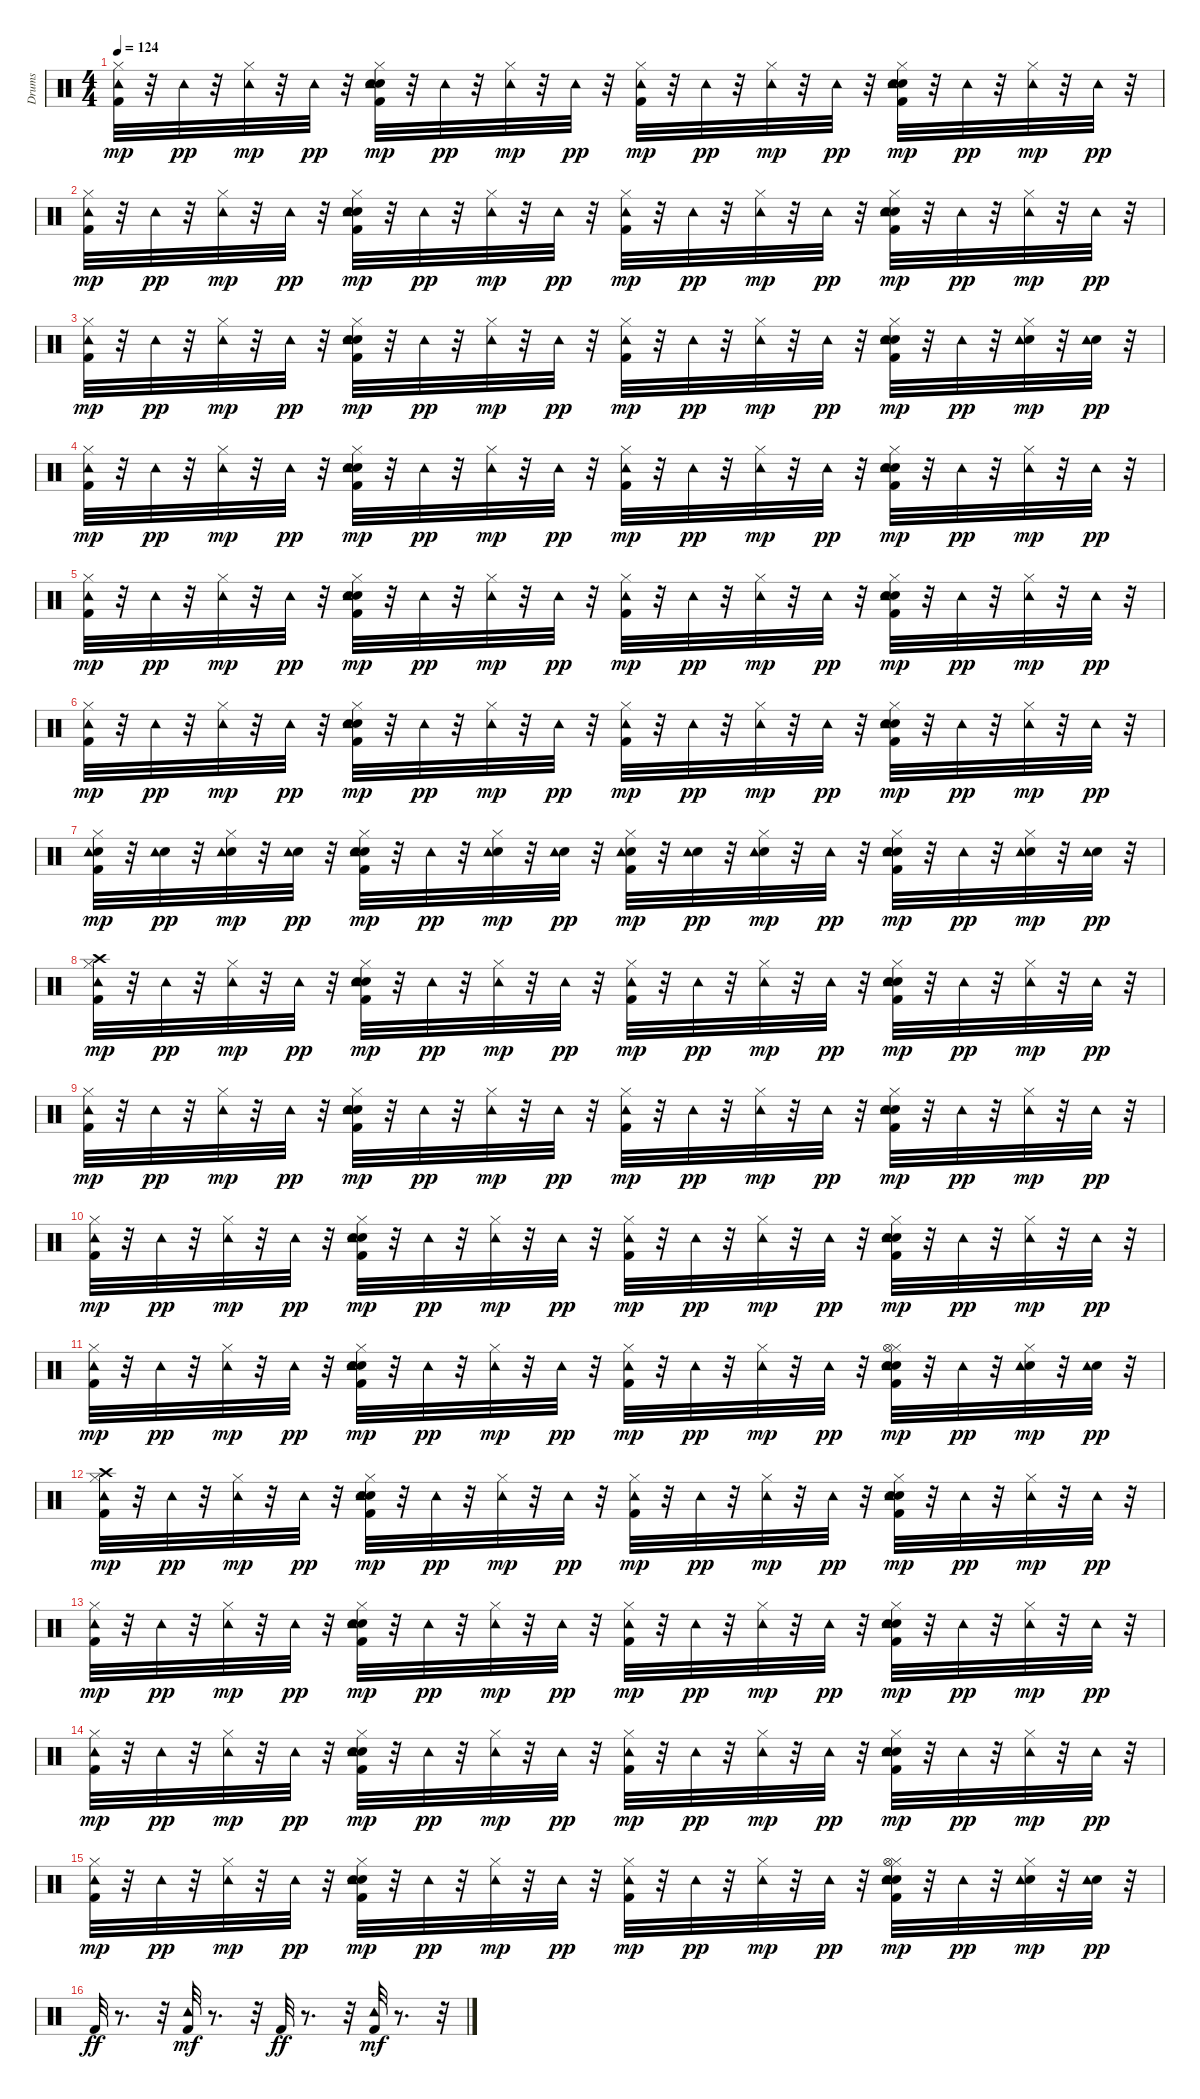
\track ("Drums" "Drums") {instrument percussion}
\staff {score}
\articulation defaults
\ts (4 4)
\tempo 124
\clef neutral
\ks c
("Kick (hit) 2" "Hi-Hat (closed)" "Tambourine (hit)").32{dy mp} r.32 "Tambourine (hit)".32{dy pp} r.32 ("Hi-Hat (closed)" "Tambourine (hit)").32{dy mp} r.32 "Tambourine (hit)".32{dy pp} r.32 ("Hand Clap (hit)" "Kick (hit) 2" "Electric Snare (hit)" "Hi-Hat (closed)" "Tambourine (hit)").32{dy mp} r.32 "Tambourine (hit)".32{dy pp} r.32 ("Hi-Hat (closed)" "Tambourine (hit)").32{dy mp} r.32 "Tambourine (hit)".32{dy pp} r.32 ("Kick (hit) 2" "Hi-Hat (closed)" "Tambourine (hit)").32{dy mp} r.32 "Tambourine (hit)".32{dy pp} r.32 ("Hi-Hat (closed)" "Tambourine (hit)").32{dy mp} r.32 "Tambourine (hit)".32{dy pp} r.32 ("Hand Clap (hit)" "Kick (hit) 2" "Electric Snare (hit)" "Hi-Hat (closed)" "Tambourine (hit)").32{dy mp} r.32 "Tambourine (hit)".32{dy pp} r.32 ("Hi-Hat (closed)" "Tambourine (hit)").32{dy mp} r.32 "Tambourine (hit)".32{dy pp} r.32 |
("Kick (hit) 2" "Hi-Hat (closed)" "Tambourine (hit)").32{dy mp} r.32 "Tambourine (hit)".32{dy pp} r.32 ("Hi-Hat (closed)" "Tambourine (hit)").32{dy mp} r.32 "Tambourine (hit)".32{dy pp} r.32 ("Hand Clap (hit)" "Kick (hit) 2" "Electric Snare (hit)" "Hi-Hat (closed)" "Tambourine (hit)").32{dy mp} r.32 "Tambourine (hit)".32{dy pp} r.32 ("Hi-Hat (closed)" "Tambourine (hit)").32{dy mp} r.32 "Tambourine (hit)".32{dy pp} r.32 ("Kick (hit) 2" "Hi-Hat (closed)" "Tambourine (hit)").32{dy mp} r.32 "Tambourine (hit)".32{dy pp} r.32 ("Hi-Hat (closed)" "Tambourine (hit)").32{dy mp} r.32 "Tambourine (hit)".32{dy pp} r.32 ("Hand Clap (hit)" "Kick (hit) 2" "Electric Snare (hit)" "Hi-Hat (closed)" "Tambourine (hit)").32{dy mp} r.32 "Tambourine (hit)".32{dy pp} r.32 ("Hi-Hat (closed)" "Tambourine (hit)").32{dy mp} r.32 "Tambourine (hit)".32{dy pp} r.32 |
("Kick (hit) 2" "Hi-Hat (closed)" "Tambourine (hit)").32{dy mp} r.32 "Tambourine (hit)".32{dy pp} r.32 ("Hi-Hat (closed)" "Tambourine (hit)").32{dy mp} r.32 "Tambourine (hit)".32{dy pp} r.32 ("Hand Clap (hit)" "Kick (hit) 2" "Electric Snare (hit)" "Hi-Hat (closed)" "Tambourine (hit)").32{dy mp} r.32 "Tambourine (hit)".32{dy pp} r.32 ("Hi-Hat (closed)" "Tambourine (hit)").32{dy mp} r.32 "Tambourine (hit)".32{dy pp} r.32 ("Kick (hit) 2" "Hi-Hat (closed)" "Tambourine (hit)").32{dy mp} r.32 "Tambourine (hit)".32{dy pp} r.32 ("Hi-Hat (closed)" "Tambourine (hit)").32{dy mp} r.32 "Tambourine (hit)".32{dy pp} r.32 ("Hand Clap (hit)" "Kick (hit) 2" "Electric Snare (hit)" "Hi-Hat (closed)" "Tambourine (hit)").32{dy mp} r.32 "Tambourine (hit)".32{dy pp} r.32 ("Electric Snare (hit)" "Hi-Hat (closed)" "Tambourine (hit)").32{dy mp} r.32 ("Electric Snare (hit)" "Tambourine (hit)").32{dy pp} r.32 |
("Kick (hit) 2" "Hi-Hat (closed)" "Tambourine (hit)").32{dy mp} r.32 "Tambourine (hit)".32{dy pp} r.32 ("Hi-Hat (closed)" "Tambourine (hit)").32{dy mp} r.32 "Tambourine (hit)".32{dy pp} r.32 ("Hand Clap (hit)" "Kick (hit) 2" "Electric Snare (hit)" "Hi-Hat (closed)" "Tambourine (hit)").32{dy mp} r.32 "Tambourine (hit)".32{dy pp} r.32 ("Hi-Hat (closed)" "Tambourine (hit)").32{dy mp} r.32 "Tambourine (hit)".32{dy pp} r.32 ("Kick (hit) 2" "Hi-Hat (closed)" "Tambourine (hit)").32{dy mp} r.32 "Tambourine (hit)".32{dy pp} r.32 ("Hi-Hat (closed)" "Tambourine (hit)").32{dy mp} r.32 "Tambourine (hit)".32{dy pp} r.32 ("Hand Clap (hit)" "Kick (hit) 2" "Electric Snare (hit)" "Hi-Hat (closed)" "Tambourine (hit)").32{dy mp} r.32 "Tambourine (hit)".32{dy pp} r.32 ("Hi-Hat (closed)" "Tambourine (hit)").32{dy mp} r.32 "Tambourine (hit)".32{dy pp} r.32 |
("Kick (hit) 2" "Hi-Hat (closed)" "Tambourine (hit)").32{dy mp} r.32 "Tambourine (hit)".32{dy pp} r.32 ("Hi-Hat (closed)" "Tambourine (hit)").32{dy mp} r.32 "Tambourine (hit)".32{dy pp} r.32 ("Hand Clap (hit)" "Kick (hit) 2" "Electric Snare (hit)" "Hi-Hat (closed)" "Tambourine (hit)").32{dy mp} r.32 "Tambourine (hit)".32{dy pp} r.32 ("Hi-Hat (closed)" "Tambourine (hit)").32{dy mp} r.32 "Tambourine (hit)".32{dy pp} r.32 ("Kick (hit) 2" "Hi-Hat (closed)" "Tambourine (hit)").32{dy mp} r.32 "Tambourine (hit)".32{dy pp} r.32 ("Hi-Hat (closed)" "Tambourine (hit)").32{dy mp} r.32 "Tambourine (hit)".32{dy pp} r.32 ("Hand Clap (hit)" "Kick (hit) 2" "Electric Snare (hit)" "Hi-Hat (closed)" "Tambourine (hit)").32{dy mp} r.32 "Tambourine (hit)".32{dy pp} r.32 ("Hi-Hat (closed)" "Tambourine (hit)").32{dy mp} r.32 "Tambourine (hit)".32{dy pp} r.32 |
("Kick (hit) 2" "Hi-Hat (closed)" "Tambourine (hit)").32{dy mp} r.32 "Tambourine (hit)".32{dy pp} r.32 ("Hi-Hat (closed)" "Tambourine (hit)").32{dy mp} r.32 "Tambourine (hit)".32{dy pp} r.32 ("Hand Clap (hit)" "Kick (hit) 2" "Electric Snare (hit)" "Hi-Hat (closed)" "Tambourine (hit)").32{dy mp} r.32 "Tambourine (hit)".32{dy pp} r.32 ("Hi-Hat (closed)" "Tambourine (hit)").32{dy mp} r.32 "Tambourine (hit)".32{dy pp} r.32 ("Kick (hit) 2" "Hi-Hat (closed)" "Tambourine (hit)").32{dy mp} r.32 "Tambourine (hit)".32{dy pp} r.32 ("Hi-Hat (closed)" "Tambourine (hit)").32{dy mp} r.32 "Tambourine (hit)".32{dy pp} r.32 ("Hand Clap (hit)" "Kick (hit) 2" "Electric Snare (hit)" "Hi-Hat (closed)" "Tambourine (hit)").32{dy mp} r.32 "Tambourine (hit)".32{dy pp} r.32 ("Hi-Hat (closed)" "Tambourine (hit)").32{dy mp} r.32 "Tambourine (hit)".32{dy pp} r.32 |
("Kick (hit) 2" "Electric Snare (hit)" "Hi-Hat (closed)" "Tambourine (hit)").32{dy mp} r.32 ("Electric Snare (hit)" "Tambourine (hit)").32{dy pp} r.32 ("Electric Snare (hit)" "Hi-Hat (closed)" "Tambourine (hit)").32{dy mp} r.32 ("Electric Snare (hit)" "Tambourine (hit)").32{dy pp} r.32 ("Hand Clap (hit)" "Kick (hit) 2" "Electric Snare (hit)" "Hi-Hat (closed)" "Tambourine (hit)").32{dy mp} r.32 "Tambourine (hit)".32{dy pp} r.32 ("Electric Snare (hit)" "Hi-Hat (closed)" "Tambourine (hit)").32{dy mp} r.32 ("Electric Snare (hit)" "Tambourine (hit)").32{dy pp} r.32 ("Kick (hit) 2" "Electric Snare (hit)" "Hi-Hat (closed)" "Tambourine (hit)").32{dy mp} r.32 ("Electric Snare (hit)" "Tambourine (hit)").32{dy pp} r.32 ("Electric Snare (hit)" "Hi-Hat (closed)" "Tambourine (hit)").32{dy mp} r.32 "Tambourine (hit)".32{dy pp} r.32 ("Hand Clap (hit)" "Kick (hit) 2" "Electric Snare (hit)" "Hi-Hat (closed)" "Tambourine (hit)").32{dy mp} r.32 "Tambourine (hit)".32{dy pp} r.32 ("Electric Snare (hit)" "Hi-Hat (closed)" "Tambourine (hit)").32{dy mp} r.32 ("Electric Snare (hit)" "Tambourine (hit)").32{dy pp} r.32 |
("Kick (hit) 2" "Hi-Hat (closed)" "Crash high (hit)" "Tambourine (hit)").32{dy mp} r.32 "Tambourine (hit)".32{dy pp} r.32 ("Hi-Hat (closed)" "Tambourine (hit)").32{dy mp} r.32 "Tambourine (hit)".32{dy pp} r.32 ("Hand Clap (hit)" "Kick (hit) 2" "Electric Snare (hit)" "Hi-Hat (closed)" "Tambourine (hit)").32{dy mp} r.32 "Tambourine (hit)".32{dy pp} r.32 ("Hi-Hat (closed)" "Tambourine (hit)").32{dy mp} r.32 "Tambourine (hit)".32{dy pp} r.32 ("Kick (hit) 2" "Hi-Hat (closed)" "Tambourine (hit)").32{dy mp} r.32 "Tambourine (hit)".32{dy pp} r.32 ("Hi-Hat (closed)" "Tambourine (hit)").32{dy mp} r.32 "Tambourine (hit)".32{dy pp} r.32 ("Hand Clap (hit)" "Kick (hit) 2" "Electric Snare (hit)" "Hi-Hat (closed)" "Tambourine (hit)").32{dy mp} r.32 "Tambourine (hit)".32{dy pp} r.32 ("Hi-Hat (closed)" "Tambourine (hit)").32{dy mp} r.32 "Tambourine (hit)".32{dy pp} r.32 |
("Kick (hit) 2" "Hi-Hat (closed)" "Tambourine (hit)").32{dy mp} r.32 "Tambourine (hit)".32{dy pp} r.32 ("Hi-Hat (closed)" "Tambourine (hit)").32{dy mp} r.32 "Tambourine (hit)".32{dy pp} r.32 ("Hand Clap (hit)" "Kick (hit) 2" "Electric Snare (hit)" "Hi-Hat (closed)" "Tambourine (hit)").32{dy mp} r.32 "Tambourine (hit)".32{dy pp} r.32 ("Hi-Hat (closed)" "Tambourine (hit)").32{dy mp} r.32 "Tambourine (hit)".32{dy pp} r.32 ("Kick (hit) 2" "Hi-Hat (closed)" "Tambourine (hit)").32{dy mp} r.32 "Tambourine (hit)".32{dy pp} r.32 ("Hi-Hat (closed)" "Tambourine (hit)").32{dy mp} r.32 "Tambourine (hit)".32{dy pp} r.32 ("Hand Clap (hit)" "Kick (hit) 2" "Electric Snare (hit)" "Hi-Hat (closed)" "Tambourine (hit)").32{dy mp} r.32 "Tambourine (hit)".32{dy pp} r.32 ("Hi-Hat (closed)" "Tambourine (hit)").32{dy mp} r.32 "Tambourine (hit)".32{dy pp} r.32 |
("Kick (hit) 2" "Hi-Hat (closed)" "Tambourine (hit)").32{dy mp} r.32 "Tambourine (hit)".32{dy pp} r.32 ("Hi-Hat (closed)" "Tambourine (hit)").32{dy mp} r.32 "Tambourine (hit)".32{dy pp} r.32 ("Hand Clap (hit)" "Kick (hit) 2" "Electric Snare (hit)" "Hi-Hat (closed)" "Tambourine (hit)").32{dy mp} r.32 "Tambourine (hit)".32{dy pp} r.32 ("Hi-Hat (closed)" "Tambourine (hit)").32{dy mp} r.32 "Tambourine (hit)".32{dy pp} r.32 ("Kick (hit) 2" "Hi-Hat (closed)" "Tambourine (hit)").32{dy mp} r.32 "Tambourine (hit)".32{dy pp} r.32 ("Hi-Hat (closed)" "Tambourine (hit)").32{dy mp} r.32 "Tambourine (hit)".32{dy pp} r.32 ("Hand Clap (hit)" "Kick (hit) 2" "Electric Snare (hit)" "Hi-Hat (closed)" "Tambourine (hit)").32{dy mp} r.32 "Tambourine (hit)".32{dy pp} r.32 ("Hi-Hat (closed)" "Tambourine (hit)").32{dy mp} r.32 "Tambourine (hit)".32{dy pp} r.32 |
("Kick (hit) 2" "Hi-Hat (closed)" "Tambourine (hit)").32{dy mp} r.32 "Tambourine (hit)".32{dy pp} r.32 ("Hi-Hat (closed)" "Tambourine (hit)").32{dy mp} r.32 "Tambourine (hit)".32{dy pp} r.32 ("Hand Clap (hit)" "Kick (hit) 2" "Electric Snare (hit)" "Hi-Hat (closed)" "Tambourine (hit)").32{dy mp} r.32 "Tambourine (hit)".32{dy pp} r.32 ("Hi-Hat (closed)" "Tambourine (hit)").32{dy mp} r.32 "Tambourine (hit)".32{dy pp} r.32 ("Kick (hit) 2" "Hi-Hat (closed)" "Tambourine (hit)").32{dy mp} r.32 "Tambourine (hit)".32{dy pp} r.32 ("Hi-Hat (closed)" "Tambourine (hit)").32{dy mp} r.32 "Tambourine (hit)".32{dy pp} r.32 ("Hand Clap (hit)" "Kick (hit) 2" "Electric Snare (hit)" "Hi-Hat (closed)" "Hi-Hat (open)" "Tambourine (hit)").32{dy mp} r.32 "Tambourine (hit)".32{dy pp} r.32 ("Electric Snare (hit)" "Hi-Hat (closed)" "Tambourine (hit)").32{dy mp} r.32 ("Electric Snare (hit)" "Tambourine (hit)").32{dy pp} r.32 |
("Kick (hit) 2" "Hi-Hat (closed)" "Crash high (hit)" "Tambourine (hit)").32{dy mp} r.32 "Tambourine (hit)".32{dy pp} r.32 ("Hi-Hat (closed)" "Tambourine (hit)").32{dy mp} r.32 "Tambourine (hit)".32{dy pp} r.32 ("Hand Clap (hit)" "Kick (hit) 2" "Electric Snare (hit)" "Hi-Hat (closed)" "Tambourine (hit)").32{dy mp} r.32 "Tambourine (hit)".32{dy pp} r.32 ("Hi-Hat (closed)" "Tambourine (hit)").32{dy mp} r.32 "Tambourine (hit)".32{dy pp} r.32 ("Kick (hit) 2" "Hi-Hat (closed)" "Tambourine (hit)").32{dy mp} r.32 "Tambourine (hit)".32{dy pp} r.32 ("Hi-Hat (closed)" "Tambourine (hit)").32{dy mp} r.32 "Tambourine (hit)".32{dy pp} r.32 ("Hand Clap (hit)" "Kick (hit) 2" "Electric Snare (hit)" "Hi-Hat (closed)" "Tambourine (hit)").32{dy mp} r.32 "Tambourine (hit)".32{dy pp} r.32 ("Hi-Hat (closed)" "Tambourine (hit)").32{dy mp} r.32 "Tambourine (hit)".32{dy pp} r.32 |
("Kick (hit) 2" "Hi-Hat (closed)" "Tambourine (hit)").32{dy mp} r.32 "Tambourine (hit)".32{dy pp} r.32 ("Hi-Hat (closed)" "Tambourine (hit)").32{dy mp} r.32 "Tambourine (hit)".32{dy pp} r.32 ("Hand Clap (hit)" "Kick (hit) 2" "Electric Snare (hit)" "Hi-Hat (closed)" "Tambourine (hit)").32{dy mp} r.32 "Tambourine (hit)".32{dy pp} r.32 ("Hi-Hat (closed)" "Tambourine (hit)").32{dy mp} r.32 "Tambourine (hit)".32{dy pp} r.32 ("Kick (hit) 2" "Hi-Hat (closed)" "Tambourine (hit)").32{dy mp} r.32 "Tambourine (hit)".32{dy pp} r.32 ("Hi-Hat (closed)" "Tambourine (hit)").32{dy mp} r.32 "Tambourine (hit)".32{dy pp} r.32 ("Hand Clap (hit)" "Kick (hit) 2" "Electric Snare (hit)" "Hi-Hat (closed)" "Tambourine (hit)").32{dy mp} r.32 "Tambourine (hit)".32{dy pp} r.32 ("Hi-Hat (closed)" "Tambourine (hit)").32{dy mp} r.32 "Tambourine (hit)".32{dy pp} r.32 |
("Kick (hit) 2" "Hi-Hat (closed)" "Tambourine (hit)").32{dy mp} r.32 "Tambourine (hit)".32{dy pp} r.32 ("Hi-Hat (closed)" "Tambourine (hit)").32{dy mp} r.32 "Tambourine (hit)".32{dy pp} r.32 ("Hand Clap (hit)" "Kick (hit) 2" "Electric Snare (hit)" "Hi-Hat (closed)" "Tambourine (hit)").32{dy mp} r.32 "Tambourine (hit)".32{dy pp} r.32 ("Hi-Hat (closed)" "Tambourine (hit)").32{dy mp} r.32 "Tambourine (hit)".32{dy pp} r.32 ("Kick (hit) 2" "Hi-Hat (closed)" "Tambourine (hit)").32{dy mp} r.32 "Tambourine (hit)".32{dy pp} r.32 ("Hi-Hat (closed)" "Tambourine (hit)").32{dy mp} r.32 "Tambourine (hit)".32{dy pp} r.32 ("Hand Clap (hit)" "Kick (hit) 2" "Electric Snare (hit)" "Hi-Hat (closed)" "Tambourine (hit)").32{dy mp} r.32 "Tambourine (hit)".32{dy pp} r.32 ("Hi-Hat (closed)" "Tambourine (hit)").32{dy mp} r.32 "Tambourine (hit)".32{dy pp} r.32 |
("Kick (hit) 2" "Hi-Hat (closed)" "Tambourine (hit)").32{dy mp} r.32 "Tambourine (hit)".32{dy pp} r.32 ("Hi-Hat (closed)" "Tambourine (hit)").32{dy mp} r.32 "Tambourine (hit)".32{dy pp} r.32 ("Hand Clap (hit)" "Kick (hit) 2" "Electric Snare (hit)" "Hi-Hat (closed)" "Tambourine (hit)").32{dy mp} r.32 "Tambourine (hit)".32{dy pp} r.32 ("Hi-Hat (closed)" "Tambourine (hit)").32{dy mp} r.32 "Tambourine (hit)".32{dy pp} r.32 ("Kick (hit) 2" "Hi-Hat (closed)" "Tambourine (hit)").32{dy mp} r.32 "Tambourine (hit)".32{dy pp} r.32 ("Hi-Hat (closed)" "Tambourine (hit)").32{dy mp} r.32 "Tambourine (hit)".32{dy pp} r.32 ("Hand Clap (hit)" "Kick (hit) 2" "Electric Snare (hit)" "Hi-Hat (closed)" "Hi-Hat (open)" "Tambourine (hit)").32{dy mp} r.32 "Tambourine (hit)".32{dy pp} r.32 ("Electric Snare (hit)" "Hi-Hat (closed)" "Tambourine (hit)").32{dy mp} r.32 ("Electric Snare (hit)" "Tambourine (hit)").32{dy pp} r.32 |
"Kick (hit) 2".32{dy ff} r.8{d} r.32 ("Kick (hit) 2" "Tambourine (hit)").32{dy mf} r.8{d} r.32 "Kick (hit) 2".32{dy ff} r.8{d} r.32 ("Kick (hit) 2" "Tambourine (hit)").32{dy mf} r.8{d} r.32
